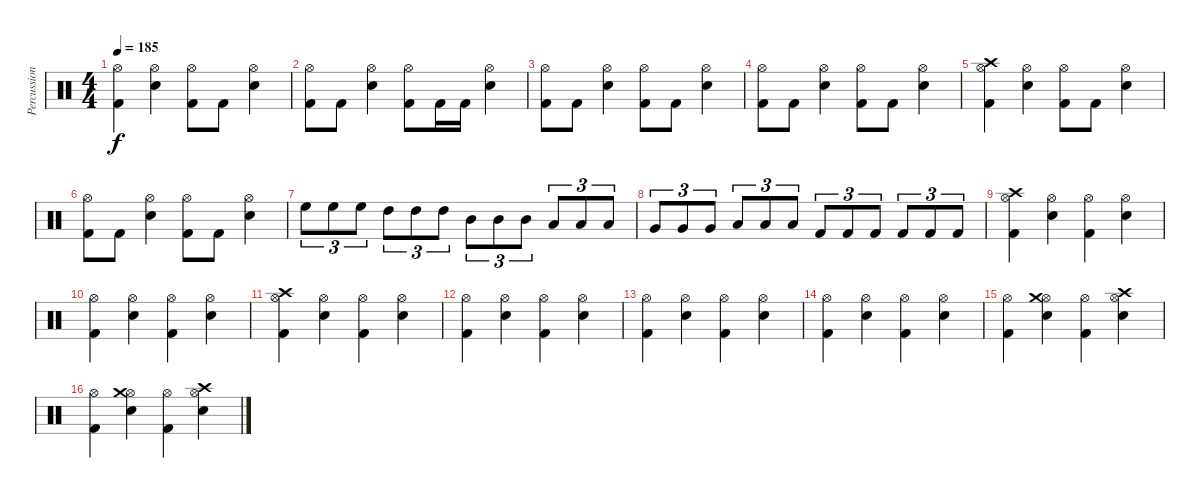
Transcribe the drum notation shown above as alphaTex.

\track ("Percussion" "Percussion") {instrument percussion}
\staff {score}
\articulation defaults
\ts (4 4)
\tempo 185
\clef neutral
\ks c
("Hi-Hat (open)" "Kick (hit) 2").4{dy f} ("Hi-Hat (open)" "Electric Snare (hit)").4 ("Hi-Hat (open)" "Kick (hit) 2").8 "Kick (hit) 2".8 ("Hi-Hat (open)" "Electric Snare (hit)").4 |
("Hi-Hat (open)" "Kick (hit) 2").8 "Kick (hit) 2".8 ("Hi-Hat (open)" "Electric Snare (hit)").4 ("Hi-Hat (open)" "Kick (hit) 2").8 "Kick (hit) 2".16 "Kick (hit) 2".16 ("Hi-Hat (open)" "Electric Snare (hit)").4 |
("Hi-Hat (open)" "Kick (hit) 2").8 "Kick (hit) 2".8 ("Hi-Hat (open)" "Electric Snare (hit)").4 ("Hi-Hat (open)" "Kick (hit) 2").8 "Kick (hit) 2".8 ("Hi-Hat (open)" "Electric Snare (hit)").4 |
("Hi-Hat (open)" "Kick (hit) 2").8 "Kick (hit) 2".8 ("Hi-Hat (open)" "Electric Snare (hit)").4 ("Hi-Hat (open)" "Kick (hit) 2").8 "Kick (hit) 2".8 ("Hi-Hat (open)" "Electric Snare (hit)").4 |
("Hi-Hat (open)" "Crash high (hit)" "Kick (hit) 2").4 ("Hi-Hat (open)" "Electric Snare (hit)").4 ("Hi-Hat (open)" "Kick (hit) 2").8 "Kick (hit) 2".8 ("Hi-Hat (open)" "Electric Snare (hit)").4 |
("Hi-Hat (open)" "Kick (hit) 2").8 "Kick (hit) 2".8 ("Hi-Hat (open)" "Electric Snare (hit)").4 ("Hi-Hat (open)" "Kick (hit) 2").8 "Kick (hit) 2".8 ("Hi-Hat (open)" "Electric Snare (hit)").4 |
"High Floor Tom (hit)".8{tu (3 2)} "High Floor Tom (hit)".8{tu (3 2)} "High Floor Tom (hit)".8{tu (3 2)} "High Tom (hit)".8{tu (3 2)} "High Tom (hit)".8{tu (3 2)} "High Tom (hit)".8{tu (3 2)} "Mid Tom (hit)".8{tu (3 2)} "Mid Tom (hit)".8{tu (3 2)} "Mid Tom (hit)".8{tu (3 2)} "Low Tom (hit)".8{tu (3 2)} "Low Tom (hit)".8{tu (3 2)} "Low Tom (hit)".8{tu (3 2)} |
"Very Low Tom (hit)".8{tu (3 2)} "Very Low Tom (hit)".8{tu (3 2)} "Very Low Tom (hit)".8{tu (3 2)} "Low Floor Tom (hit)".8{tu (3 2)} "Low Floor Tom (hit)".8{tu (3 2)} "Low Floor Tom (hit)".8{tu (3 2)} "Kick (hit) 2".8{tu (3 2)} "Kick (hit) 2".8{tu (3 2)} "Kick (hit) 2".8{tu (3 2)} "Kick (hit) 2".8{tu (3 2)} "Kick (hit) 2".8{tu (3 2)} "Kick (hit) 2".8{tu (3 2)} |
("Hi-Hat (open)" "Crash high (hit)" "Kick (hit) 2").4 ("Hi-Hat (open)" "Electric Snare (hit)").4 ("Hi-Hat (open)" "Kick (hit) 2").4 ("Hi-Hat (open)" "Electric Snare (hit)").4 |
("Hi-Hat (open)" "Kick (hit) 2").4 ("Hi-Hat (open)" "Electric Snare (hit)").4 ("Hi-Hat (open)" "Kick (hit) 2").4 ("Hi-Hat (open)" "Electric Snare (hit)").4 |
("Hi-Hat (open)" "Crash high (hit)" "Kick (hit) 2").4 ("Hi-Hat (open)" "Electric Snare (hit)").4 ("Hi-Hat (open)" "Kick (hit) 2").4 ("Hi-Hat (open)" "Electric Snare (hit)").4 |
("Hi-Hat (open)" "Kick (hit) 2").4 ("Hi-Hat (open)" "Electric Snare (hit)").4 ("Hi-Hat (open)" "Kick (hit) 2").4 ("Hi-Hat (open)" "Electric Snare (hit)").4 |
("Hi-Hat (open)" "Kick (hit) 2").4 ("Hi-Hat (open)" "Electric Snare (hit)").4 ("Hi-Hat (open)" "Kick (hit) 2").4 ("Hi-Hat (open)" "Electric Snare (hit)").4 |
("Hi-Hat (open)" "Kick (hit) 2").4 ("Hi-Hat (open)" "Electric Snare (hit)").4 ("Hi-Hat (open)" "Kick (hit) 2").4 ("Hi-Hat (open)" "Electric Snare (hit)").4 |
("Hi-Hat (open)" "Kick (hit) 2").4 ("Hi-Hat (open)" "Crash medium (hit)" "Electric Snare (hit)").4 ("Hi-Hat (open)" "Kick (hit) 2").4 ("Hi-Hat (open)" "Crash high (hit)" "Electric Snare (hit)").4 |
("Hi-Hat (open)" "Kick (hit) 2").4 ("Hi-Hat (open)" "Crash medium (hit)" "Electric Snare (hit)").4 ("Hi-Hat (open)" "Kick (hit) 2").4 ("Hi-Hat (open)" "Crash high (hit)" "Electric Snare (hit)").4
